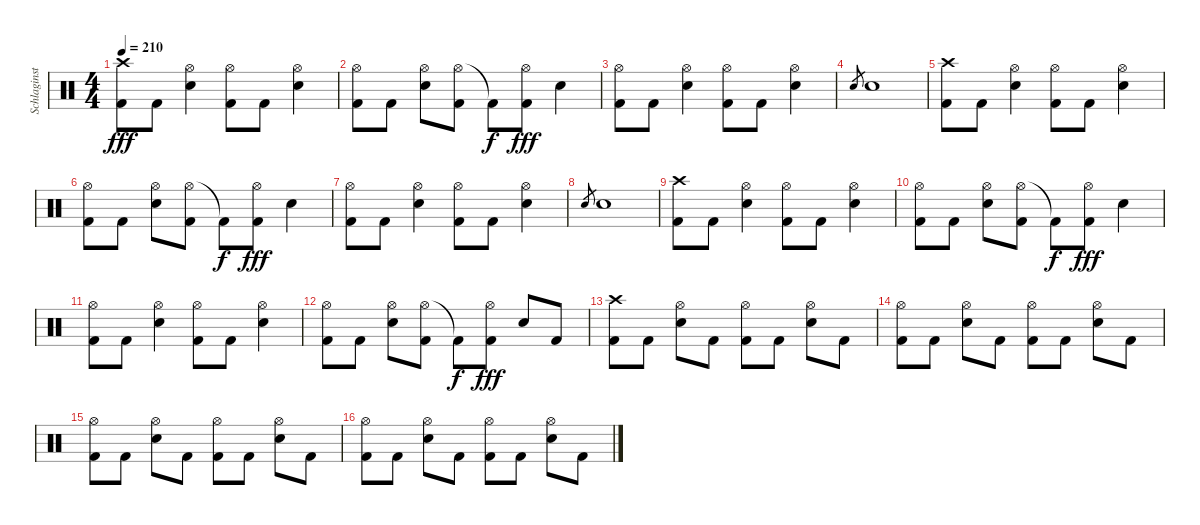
\track ("Schlaginstrumente - Auswahl" "Schlaginst") {instrument percussion}
\staff {score}
\articulation defaults
\ts (4 4)
\tempo 210
\clef neutral
\ks c
("Crash high (hit)" "Kick (hit) 2").8{dy fff} "Kick (hit) 2".8 ("Hi-Hat (open)" "Electric Snare (hit)").4 ("Hi-Hat (open)" "Kick (hit) 2").8 "Kick (hit) 2".8 ("Hi-Hat (open)" "Electric Snare (hit)").4 |
("Hi-Hat (open)" "Kick (hit) 2").8 "Kick (hit) 2".8 ("Hi-Hat (open)" "Electric Snare (hit)").8 ("Hi-Hat (open)" "Kick (hit) 2").8 "Kick (hit) 2"{t}.8{dy f} ("Hi-Hat (open)" "Kick (hit) 2").8{dy fff} "Electric Snare (hit)".4 |
("Hi-Hat (open)" "Kick (hit) 2").8 "Kick (hit) 2".8 ("Hi-Hat (open)" "Electric Snare (hit)").4 ("Hi-Hat (open)" "Kick (hit) 2").8 "Kick (hit) 2".8 ("Hi-Hat (open)" "Electric Snare (hit)").4 |
"Electric Snare (hit)".8{gr} "Electric Snare (hit)".1 |
("Crash high (hit)" "Kick (hit) 2").8 "Kick (hit) 2".8 ("Hi-Hat (open)" "Electric Snare (hit)").4 ("Hi-Hat (open)" "Kick (hit) 2").8 "Kick (hit) 2".8 ("Hi-Hat (open)" "Electric Snare (hit)").4 |
("Hi-Hat (open)" "Kick (hit) 2").8 "Kick (hit) 2".8 ("Hi-Hat (open)" "Electric Snare (hit)").8 ("Hi-Hat (open)" "Kick (hit) 2").8 "Kick (hit) 2"{t}.8{dy f} ("Hi-Hat (open)" "Kick (hit) 2").8{dy fff} "Electric Snare (hit)".4 |
("Hi-Hat (open)" "Kick (hit) 2").8 "Kick (hit) 2".8 ("Hi-Hat (open)" "Electric Snare (hit)").4 ("Hi-Hat (open)" "Kick (hit) 2").8 "Kick (hit) 2".8 ("Hi-Hat (open)" "Electric Snare (hit)").4 |
"Electric Snare (hit)".8{gr} "Electric Snare (hit)".1 |
("Crash high (hit)" "Kick (hit) 2").8 "Kick (hit) 2".8 ("Hi-Hat (open)" "Electric Snare (hit)").4 ("Hi-Hat (open)" "Kick (hit) 2").8 "Kick (hit) 2".8 ("Hi-Hat (open)" "Electric Snare (hit)").4 |
("Hi-Hat (open)" "Kick (hit) 2").8 "Kick (hit) 2".8 ("Hi-Hat (open)" "Electric Snare (hit)").8 ("Hi-Hat (open)" "Kick (hit) 2").8 "Kick (hit) 2"{t}.8{dy f} ("Hi-Hat (open)" "Kick (hit) 2").8{dy fff} "Electric Snare (hit)".4 |
("Hi-Hat (open)" "Kick (hit) 2").8 "Kick (hit) 2".8 ("Hi-Hat (open)" "Electric Snare (hit)").4 ("Hi-Hat (open)" "Kick (hit) 2").8 "Kick (hit) 2".8 ("Hi-Hat (open)" "Electric Snare (hit)").4 |
("Hi-Hat (open)" "Kick (hit) 2").8 "Kick (hit) 2".8 ("Hi-Hat (open)" "Electric Snare (hit)").8 ("Hi-Hat (open)" "Kick (hit) 2").8 "Kick (hit) 2"{t}.8{dy f} ("Hi-Hat (open)" "Kick (hit) 2").8{dy fff} "Electric Snare (hit)".8 "Kick (hit) 2".8 |
("Crash high (hit)" "Kick (hit) 2").8 "Kick (hit) 2".8 ("Hi-Hat (open)" "Electric Snare (hit)").8 "Kick (hit) 2".8 ("Hi-Hat (open)" "Kick (hit) 2").8 "Kick (hit) 2".8 ("Hi-Hat (open)" "Electric Snare (hit)").8 "Kick (hit) 2".8 |
("Hi-Hat (open)" "Kick (hit) 2").8 "Kick (hit) 2".8 ("Hi-Hat (open)" "Electric Snare (hit)").8 "Kick (hit) 2".8 ("Hi-Hat (open)" "Kick (hit) 2").8 "Kick (hit) 2".8 ("Hi-Hat (open)" "Electric Snare (hit)").8 "Kick (hit) 2".8 |
("Hi-Hat (open)" "Kick (hit) 2").8 "Kick (hit) 2".8 ("Hi-Hat (open)" "Electric Snare (hit)").8 "Kick (hit) 2".8 ("Hi-Hat (open)" "Kick (hit) 2").8 "Kick (hit) 2".8 ("Hi-Hat (open)" "Electric Snare (hit)").8 "Kick (hit) 2".8 |
("Hi-Hat (open)" "Kick (hit) 2").8 "Kick (hit) 2".8 ("Hi-Hat (open)" "Electric Snare (hit)").8 "Kick (hit) 2".8 ("Hi-Hat (open)" "Kick (hit) 2").8 "Kick (hit) 2".8 ("Hi-Hat (open)" "Electric Snare (hit)").8 "Kick (hit) 2".8
